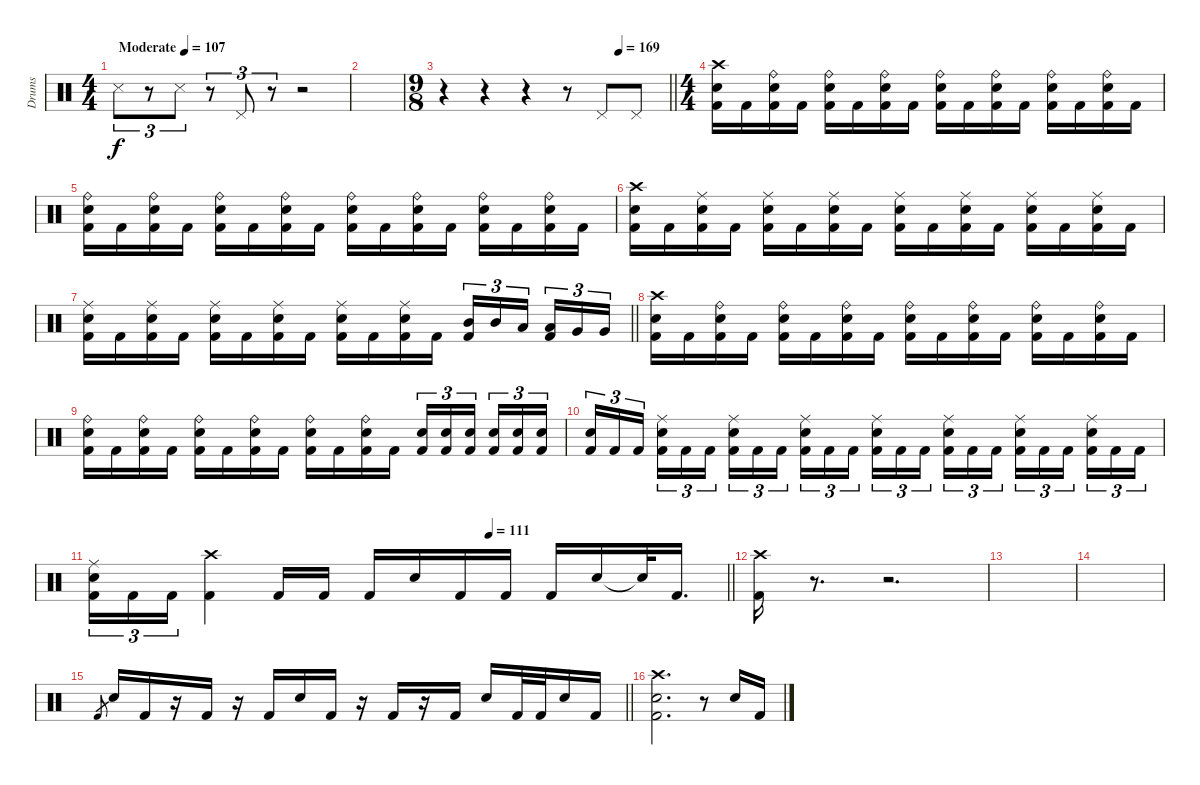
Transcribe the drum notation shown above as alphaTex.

\track ("Drums" "Drums") {instrument percussion}
\staff
\articulation defaults
\ts (4 4)
\tempo (107 "Moderate")
\clef neutral
\ks c "Snare (side stick) 3".8{tu (3 2) dy f}
r.8{tu (3 2)} "Snare (side stick) 3".8{tu (3 2)} r.8{tu (3 2)} "Pedal Hi-Hat (hit)".8{tu (3 2)} r.8{tu (3 2)} r.2 |
|
\ts (9 8)
\tempo (169 0.7777777777777778)
\barLineRight lightlight
r.4 r.4 r.4 r.8 "Pedal Hi-Hat (hit)".8 "Pedal Hi-Hat (hit)".8 |
\ts (4 4)
\section ("" "")
("Crash high (hit)" "Electric Snare (hit)" "Kick (hit) 2").16 "Kick (hit) 2".16 ("Ride (bell)" "Electric Snare (hit)" "Kick (hit) 2").16 "Kick (hit) 2".16 ("Ride (bell)" "Electric Snare (hit)" "Kick (hit) 2").16 "Kick (hit) 2".16 ("Ride (bell)" "Electric Snare (hit)" "Kick (hit) 2").16 "Kick (hit) 2".16 ("Ride (bell)" "Electric Snare (hit)" "Kick (hit) 2").16 "Kick (hit) 2".16 ("Ride (bell)" "Electric Snare (hit)" "Kick (hit) 2").16 "Kick (hit) 2".16 ("Ride (bell)" "Electric Snare (hit)" "Kick (hit) 2").16 "Kick (hit) 2".16 ("Ride (bell)" "Electric Snare (hit)" "Kick (hit) 2").16 "Kick (hit) 2".16 |
("Ride (bell)" "Electric Snare (hit)" "Kick (hit) 2").16 "Kick (hit) 2".16 ("Ride (bell)" "Electric Snare (hit)" "Kick (hit) 2").16 "Kick (hit) 2".16 ("Ride (bell)" "Electric Snare (hit)" "Kick (hit) 2").16 "Kick (hit) 2".16 ("Ride (bell)" "Electric Snare (hit)" "Kick (hit) 2").16 "Kick (hit) 2".16 ("Ride (bell)" "Electric Snare (hit)" "Kick (hit) 2").16 "Kick (hit) 2".16 ("Ride (bell)" "Electric Snare (hit)" "Kick (hit) 2").16 "Kick (hit) 2".16 ("Ride (bell)" "Electric Snare (hit)" "Kick (hit) 2").16 "Kick (hit) 2".16 ("Ride (bell)" "Electric Snare (hit)" "Kick (hit) 2").16 "Kick (hit) 2".16 |
("Crash high (hit)" "Electric Snare (hit)" "Kick (hit) 2").16 "Kick (hit) 2".16 ("Ride (middle)" "Electric Snare (hit)" "Kick (hit) 2").16 "Kick (hit) 2".16 ("Ride (middle)" "Electric Snare (hit)" "Kick (hit) 2").16 "Kick (hit) 2".16 ("Ride (middle)" "Electric Snare (hit)" "Kick (hit) 2").16 "Kick (hit) 2".16 ("Ride (middle)" "Electric Snare (hit)" "Kick (hit) 2").16 "Kick (hit) 2".16 ("Ride (middle)" "Electric Snare (hit)" "Kick (hit) 2").16 "Kick (hit) 2".16 ("Ride (middle)" "Electric Snare (hit)" "Kick (hit) 2").16 "Kick (hit) 2".16 ("Ride (middle)" "Electric Snare (hit)" "Kick (hit) 2").16 "Kick (hit) 2".16 |
\barLineRight lightlight
("Ride (middle)" "Electric Snare (hit)" "Kick (hit) 2").16 "Kick (hit) 2".16 ("Ride (middle)" "Electric Snare (hit)" "Kick (hit) 2").16 "Kick (hit) 2".16 ("Ride (middle)" "Electric Snare (hit)" "Kick (hit) 2").16 "Kick (hit) 2".16 ("Ride (middle)" "Electric Snare (hit)" "Kick (hit) 2").16 "Kick (hit) 2".16 ("Ride (middle)" "Electric Snare (hit)" "Kick (hit) 2").16 "Kick (hit) 2".16 ("Ride (middle)" "Electric Snare (hit)" "Kick (hit) 2").16 "Kick (hit) 2".16 ("Mid Tom (hit)" "Kick (hit) 2").16{tu (3 2)} "Mid Tom (hit)".16{tu (3 2)} "Low Tom (hit)".16{tu (3 2) beam splitsecondary} ("Low Tom (hit)" "Kick (hit) 2").16{tu (3 2)} "Very Low Tom (hit)".16{tu (3 2)} "Very Low Tom (hit)".16{tu (3 2)} |
("Crash high (hit)" "Electric Snare (hit)" "Kick (hit) 2").16 "Kick (hit) 2".16 ("Ride (bell)" "Electric Snare (hit)" "Kick (hit) 2").16 "Kick (hit) 2".16 ("Ride (bell)" "Electric Snare (hit)" "Kick (hit) 2").16 "Kick (hit) 2".16 ("Ride (bell)" "Electric Snare (hit)" "Kick (hit) 2").16 "Kick (hit) 2".16 ("Ride (bell)" "Electric Snare (hit)" "Kick (hit) 2").16 "Kick (hit) 2".16 ("Ride (bell)" "Electric Snare (hit)" "Kick (hit) 2").16 "Kick (hit) 2".16 ("Ride (bell)" "Electric Snare (hit)" "Kick (hit) 2").16 "Kick (hit) 2".16 ("Ride (bell)" "Electric Snare (hit)" "Kick (hit) 2").16 "Kick (hit) 2".16 |
("Ride (bell)" "Electric Snare (hit)" "Kick (hit) 2").16 "Kick (hit) 2".16 ("Ride (bell)" "Electric Snare (hit)" "Kick (hit) 2").16 "Kick (hit) 2".16 ("Ride (bell)" "Electric Snare (hit)" "Kick (hit) 2").16 "Kick (hit) 2".16 ("Ride (bell)" "Electric Snare (hit)" "Kick (hit) 2").16 "Kick (hit) 2".16 ("Ride (bell)" "Electric Snare (hit)" "Kick (hit) 2").16 "Kick (hit) 2".16 ("Ride (bell)" "Electric Snare (hit)" "Kick (hit) 2").16 "Kick (hit) 2".16 ("Electric Snare (hit)" "Kick (hit) 2").16{tu (3 2)} ("Electric Snare (hit)" "Kick (hit) 2").16{tu (3 2)} ("Electric Snare (hit)" "Kick (hit) 2").16{tu (3 2) beam splitsecondary} ("Electric Snare (hit)" "Kick (hit) 2").16{tu (3 2)} ("Electric Snare (hit)" "Kick (hit) 2").16{tu (3 2)} ("Electric Snare (hit)" "Kick (hit) 2").16{tu (3 2)} |
("Electric Snare (hit)" "Kick (hit) 2").16{tu (3 2)} "Kick (hit) 2".16{tu (3 2)} "Kick (hit) 2".16{tu (3 2) beam splitsecondary} ("Ride (middle)" "Electric Snare (hit)" "Kick (hit) 2").16{tu (3 2)} "Kick (hit) 2".16{tu (3 2)} "Kick (hit) 2".16{tu (3 2)} ("Ride (middle)" "Electric Snare (hit)" "Kick (hit) 2").16{tu (3 2)} "Kick (hit) 2".16{tu (3 2)} "Kick (hit) 2".16{tu (3 2) beam splitsecondary} ("Ride (middle)" "Electric Snare (hit)" "Kick (hit) 2").16{tu (3 2)} "Kick (hit) 2".16{tu (3 2)} "Kick (hit) 2".16{tu (3 2)} ("Ride (middle)" "Electric Snare (hit)" "Kick (hit) 2").16{tu (3 2)} "Kick (hit) 2".16{tu (3 2)} "Kick (hit) 2".16{tu (3 2) beam splitsecondary} ("Ride (middle)" "Electric Snare (hit)" "Kick (hit) 2").16{tu (3 2)} "Kick (hit) 2".16{tu (3 2)} "Kick (hit) 2".16{tu (3 2)} ("Ride (middle)" "Electric Snare (hit)" "Kick (hit) 2").16{tu (3 2)} "Kick (hit) 2".16{tu (3 2)} "Kick (hit) 2".16{tu (3 2) beam splitsecondary} ("Ride (middle)" "Electric Snare (hit)" "Kick (hit) 2").16{tu (3 2)} "Kick (hit) 2".16{tu (3 2)} "Kick (hit) 2".16{tu (3 2)} |
\tempo (111 0.625)
\barLineRight lightlight
("Ride (middle)" "Electric Snare (hit)" "Kick (hit) 2").16{tu (3 2)} "Kick (hit) 2".16{tu (3 2)} "Kick (hit) 2".16{tu (3 2)} ("Crash high (hit)" "Kick (hit) 2").4 "Kick (hit) 2".16 "Kick (hit) 2".16 "Kick (hit) 2".16 "Electric Snare (hit)".16 "Kick (hit) 2".16 "Kick (hit) 2".16 "Kick (hit) 2".16 "Electric Snare (hit)".16 "Snare (hit)"{t}.32 "Kick (hit) 2".16{d} |
\section ("" "")
("Crash high (hit)" "Kick (hit) 2").16 r.8{d} r.2{d} |
|
|
\barLineRight lightlight "Kick (hit) 2"{h}.8{gr} "Electric Snare (hit)".16 "Kick (hit) 2".16
r.16 "Kick (hit) 2".16 r.16 "Kick (hit) 2".16 "Electric Snare (hit)".16 "Kick (hit) 2".16 r.16 "Kick (hit) 2".16 r.16 "Kick (hit) 2".16 "Electric Snare (hit)".16 "Kick (hit) 2".32 "Kick (hit) 2".32 "Electric Snare (hit)".16 "Kick (hit) 2".16 |
("Crash high (hit)" "Electric Snare (hit)" "Kick (hit) 2").2{d} r.8 "Electric Snare (hit)".16 "Kick (hit) 2".16
